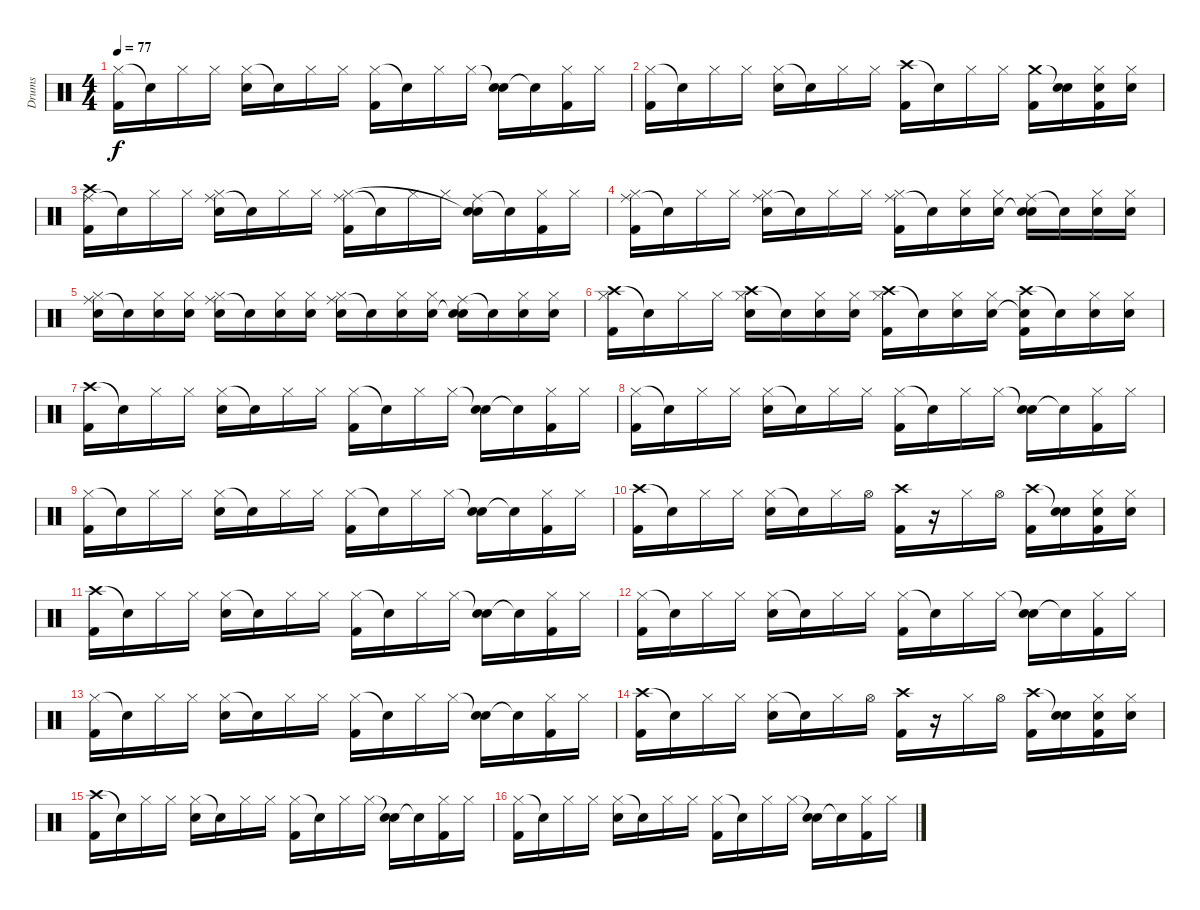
\track ("Drums" "Drums") {instrument percussion}
\staff {score}
\articulation defaults
\ts (4 4)
\tempo 77
\clef neutral
\ks c
("Hi-Hat (closed)" "Kick (hit) 2").16{dy f} "Snare (hit)"{t}.16 "Hi-Hat (closed)".16 "Hi-Hat (closed)".16 ("Hi-Hat (closed)" "Electric Snare (hit)").16 "Snare (hit)"{t}.16 "Hi-Hat (closed)".16 "Hi-Hat (closed)".16 ("Hi-Hat (closed)" "Kick (hit) 2").16 "Snare (hit)"{t}.16 "Hi-Hat (closed)".16 "Hi-Hat (closed)".16 ("Snare (hit)"{t} "Electric Snare (hit)").16 "Snare (hit)"{t}.16 ("Hi-Hat (closed)" "Kick (hit) 2").16 "Hi-Hat (closed)".16 |
("Hi-Hat (closed)" "Kick (hit) 2").16 "Snare (hit)"{t}.16 "Hi-Hat (closed)".16 "Hi-Hat (closed)".16 ("Hi-Hat (closed)" "Electric Snare (hit)").16 "Snare (hit)"{t}.16 "Hi-Hat (closed)".16 "Hi-Hat (closed)".16 ("Crash high (hit)" "Kick (hit) 2").16 "Snare (hit)"{t}.16 "Hi-Hat (closed)".16 "Hi-Hat (closed)".16 ("Crash medium (hit)" "Kick (hit) 2").16 ("Snare (hit)"{t} "Electric Snare (hit)").16 ("Hi-Hat (closed)" "Electric Snare (hit)" "Kick (hit) 2").16 ("Hi-Hat (closed)" "Electric Snare (hit)").16 |
("Ride (middle)" "Crash high (hit)" "Kick (hit) 2").16 "Snare (hit)"{t}.16 "Hi-Hat (closed)".16 "Hi-Hat (closed)".16 ("Ride (middle)" "Hi-Hat (closed)" "Electric Snare (hit)").16 "Snare (hit)"{t}.16 "Hi-Hat (closed)".16 "Hi-Hat (closed)".16 ("Ride (middle)" "Hi-Hat (closed)" "Kick (hit) 2").16 "Snare (hit)"{t}.16 "Hi-Hat (closed)".16 "Hi-Hat (closed)".16 ("Ride (middle)" "Snare (hit)"{t} "Electric Snare (hit)").16 "Snare (hit)"{t}.16 ("Hi-Hat (closed)" "Kick (hit) 2").16 "Hi-Hat (closed)".16 |
("Ride (middle)" "Hi-Hat (closed)" "Kick (hit) 2").16 "Snare (hit)"{t}.16 "Hi-Hat (closed)".16 "Hi-Hat (closed)".16 ("Ride (middle)" "Hi-Hat (closed)" "Electric Snare (hit)").16 "Snare (hit)"{t}.16 "Hi-Hat (closed)".16 "Hi-Hat (closed)".16 ("Ride (middle)" "Hi-Hat (closed)" "Kick (hit) 2").16 "Snare (hit)"{t}.16 ("Hi-Hat (closed)" "Electric Snare (hit)").16 ("Hi-Hat (closed)" "Electric Snare (hit)").16 ("Ride (middle)" "Snare (hit)"{t} "Electric Snare (hit)").16 "Snare (hit)"{t}.16 ("Hi-Hat (closed)" "Electric Snare (hit)").16 ("Hi-Hat (closed)" "Electric Snare (hit)").16 |
("Ride (middle)" "Hi-Hat (closed)" "Electric Snare (hit)").16 "Snare (hit)"{t}.16 ("Hi-Hat (closed)" "Electric Snare (hit)").16 ("Hi-Hat (closed)" "Electric Snare (hit)").16 ("Ride (middle)" "Hi-Hat (closed)" "Electric Snare (hit)").16 "Snare (hit)"{t}.16 ("Hi-Hat (closed)" "Electric Snare (hit)").16 ("Hi-Hat (closed)" "Electric Snare (hit)").16 ("Ride (middle)" "Hi-Hat (closed)" "Electric Snare (hit)").16 "Snare (hit)"{t}.16 ("Hi-Hat (closed)" "Electric Snare (hit)").16 ("Hi-Hat (closed)" "Electric Snare (hit)").16 ("Ride (middle)" "Snare (hit)"{t} "Electric Snare (hit)").16 "Snare (hit)"{t}.16 ("Hi-Hat (closed)" "Electric Snare (hit)").16 ("Hi-Hat (closed)" "Electric Snare (hit)").16 |
("Crash high (hit)" "Hi-Hat (closed)" "Kick (hit) 2").16 "Snare (hit)"{t}.16 "Hi-Hat (closed)".16 "Hi-Hat (closed)".16 ("Crash high (hit)" "Hi-Hat (closed)" "Electric Snare (hit)").16 "Snare (hit)"{t}.16 ("Hi-Hat (closed)" "Electric Snare (hit)").16 ("Hi-Hat (closed)" "Electric Snare (hit)").16 ("Crash high (hit)" "Hi-Hat (closed)" "Kick (hit) 2").16 "Snare (hit)"{t}.16 ("Hi-Hat (closed)" "Electric Snare (hit)").16 ("Hi-Hat (closed)" "Electric Snare (hit)").16 ("Crash high (hit)" "Snare (hit)"{t} "Kick (hit) 2").16 "Snare (hit)"{t}.16 ("Hi-Hat (closed)" "Electric Snare (hit)").16 ("Hi-Hat (closed)" "Electric Snare (hit)").16 |
("Crash high (hit)" "Kick (hit) 2").16 "Snare (hit)"{t}.16 "Hi-Hat (closed)".16 "Hi-Hat (closed)".16 ("Hi-Hat (closed)" "Electric Snare (hit)").16 "Snare (hit)"{t}.16 "Hi-Hat (closed)".16 "Hi-Hat (closed)".16 ("Hi-Hat (closed)" "Kick (hit) 2").16 "Snare (hit)"{t}.16 "Hi-Hat (closed)".16 "Hi-Hat (closed)".16 ("Snare (hit)"{t} "Electric Snare (hit)").16 "Snare (hit)"{t}.16 ("Hi-Hat (closed)" "Kick (hit) 2").16 "Hi-Hat (closed)".16 |
("Hi-Hat (closed)" "Kick (hit) 2").16 "Snare (hit)"{t}.16 "Hi-Hat (closed)".16 "Hi-Hat (closed)".16 ("Hi-Hat (closed)" "Electric Snare (hit)").16 "Snare (hit)"{t}.16 "Hi-Hat (closed)".16 "Hi-Hat (closed)".16 ("Hi-Hat (closed)" "Kick (hit) 2").16 "Snare (hit)"{t}.16 "Hi-Hat (closed)".16 "Hi-Hat (closed)".16 ("Snare (hit)"{t} "Electric Snare (hit)").16 "Snare (hit)"{t}.16 ("Hi-Hat (closed)" "Kick (hit) 2").16 "Hi-Hat (closed)".16 |
("Hi-Hat (closed)" "Kick (hit) 2").16 "Snare (hit)"{t}.16 "Hi-Hat (closed)".16 "Hi-Hat (closed)".16 ("Hi-Hat (closed)" "Electric Snare (hit)").16 "Snare (hit)"{t}.16 "Hi-Hat (closed)".16 "Hi-Hat (closed)".16 ("Hi-Hat (closed)" "Kick (hit) 2").16 "Snare (hit)"{t}.16 "Hi-Hat (closed)".16 "Hi-Hat (closed)".16 ("Snare (hit)"{t} "Electric Snare (hit)").16 "Snare (hit)"{t}.16 ("Hi-Hat (closed)" "Kick (hit) 2").16 "Hi-Hat (closed)".16 |
("Crash high (hit)" "Kick (hit) 2").16 "Snare (hit)"{t}.16 "Hi-Hat (closed)".16 "Hi-Hat (closed)".16 ("Hi-Hat (closed)" "Electric Snare (hit)").16 "Snare (hit)"{t}.16 "Hi-Hat (closed)".16 "Hi-Hat (open)".16 ("Crash high (hit)" "Kick (hit) 2").16 r.16 "Hi-Hat (closed)".16 "Hi-Hat (open)".16 ("Crash high (hit)" "Kick (hit) 2").16 ("Snare (hit)"{t} "Electric Snare (hit)").16 ("Hi-Hat (closed)" "Electric Snare (hit)" "Kick (hit) 2").16 ("Hi-Hat (closed)" "Electric Snare (hit)").16 |
("Crash high (hit)" "Kick (hit) 2").16 "Snare (hit)"{t}.16 "Hi-Hat (closed)".16 "Hi-Hat (closed)".16 ("Hi-Hat (closed)" "Electric Snare (hit)").16 "Snare (hit)"{t}.16 "Hi-Hat (closed)".16 "Hi-Hat (closed)".16 ("Hi-Hat (closed)" "Kick (hit) 2").16 "Snare (hit)"{t}.16 "Hi-Hat (closed)".16 "Hi-Hat (closed)".16 ("Snare (hit)"{t} "Electric Snare (hit)").16 "Snare (hit)"{t}.16 ("Hi-Hat (closed)" "Kick (hit) 2").16 "Hi-Hat (closed)".16 |
("Hi-Hat (closed)" "Kick (hit) 2").16 "Snare (hit)"{t}.16 "Hi-Hat (closed)".16 "Hi-Hat (closed)".16 ("Hi-Hat (closed)" "Electric Snare (hit)").16 "Snare (hit)"{t}.16 "Hi-Hat (closed)".16 "Hi-Hat (closed)".16 ("Hi-Hat (closed)" "Kick (hit) 2").16 "Snare (hit)"{t}.16 "Hi-Hat (closed)".16 "Hi-Hat (closed)".16 ("Snare (hit)"{t} "Electric Snare (hit)").16 "Snare (hit)"{t}.16 ("Hi-Hat (closed)" "Kick (hit) 2").16 "Hi-Hat (closed)".16 |
("Hi-Hat (closed)" "Kick (hit) 2").16 "Snare (hit)"{t}.16 "Hi-Hat (closed)".16 "Hi-Hat (closed)".16 ("Hi-Hat (closed)" "Electric Snare (hit)").16 "Snare (hit)"{t}.16 "Hi-Hat (closed)".16 "Hi-Hat (closed)".16 ("Hi-Hat (closed)" "Kick (hit) 2").16 "Snare (hit)"{t}.16 "Hi-Hat (closed)".16 "Hi-Hat (closed)".16 ("Snare (hit)"{t} "Electric Snare (hit)").16 "Snare (hit)"{t}.16 ("Hi-Hat (closed)" "Kick (hit) 2").16 "Hi-Hat (closed)".16 |
("Crash high (hit)" "Kick (hit) 2").16 "Snare (hit)"{t}.16 "Hi-Hat (closed)".16 "Hi-Hat (closed)".16 ("Hi-Hat (closed)" "Electric Snare (hit)").16 "Snare (hit)"{t}.16 "Hi-Hat (closed)".16 "Hi-Hat (open)".16 ("Crash high (hit)" "Kick (hit) 2").16 r.16 "Hi-Hat (closed)".16 "Hi-Hat (open)".16 ("Crash high (hit)" "Kick (hit) 2").16 ("Snare (hit)"{t} "Electric Snare (hit)").16 ("Hi-Hat (closed)" "Electric Snare (hit)" "Kick (hit) 2").16 ("Hi-Hat (closed)" "Electric Snare (hit)").16 |
("Crash high (hit)" "Kick (hit) 2").16 "Snare (hit)"{t}.16 "Hi-Hat (closed)".16 "Hi-Hat (closed)".16 ("Hi-Hat (closed)" "Electric Snare (hit)").16 "Snare (hit)"{t}.16 "Hi-Hat (closed)".16 "Hi-Hat (closed)".16 ("Hi-Hat (closed)" "Kick (hit) 2").16 "Snare (hit)"{t}.16 "Hi-Hat (closed)".16 "Hi-Hat (closed)".16 ("Snare (hit)"{t} "Electric Snare (hit)").16 "Snare (hit)"{t}.16 ("Hi-Hat (closed)" "Kick (hit) 2").16 "Hi-Hat (closed)".16 |
("Hi-Hat (closed)" "Kick (hit) 2").16 "Snare (hit)"{t}.16 "Hi-Hat (closed)".16 "Hi-Hat (closed)".16 ("Hi-Hat (closed)" "Electric Snare (hit)").16 "Snare (hit)"{t}.16 "Hi-Hat (closed)".16 "Hi-Hat (closed)".16 ("Hi-Hat (closed)" "Kick (hit) 2").16 "Snare (hit)"{t}.16 "Hi-Hat (closed)".16 "Hi-Hat (closed)".16 ("Snare (hit)"{t} "Electric Snare (hit)").16 "Snare (hit)"{t}.16 ("Hi-Hat (closed)" "Kick (hit) 2").16 "Hi-Hat (closed)".16
